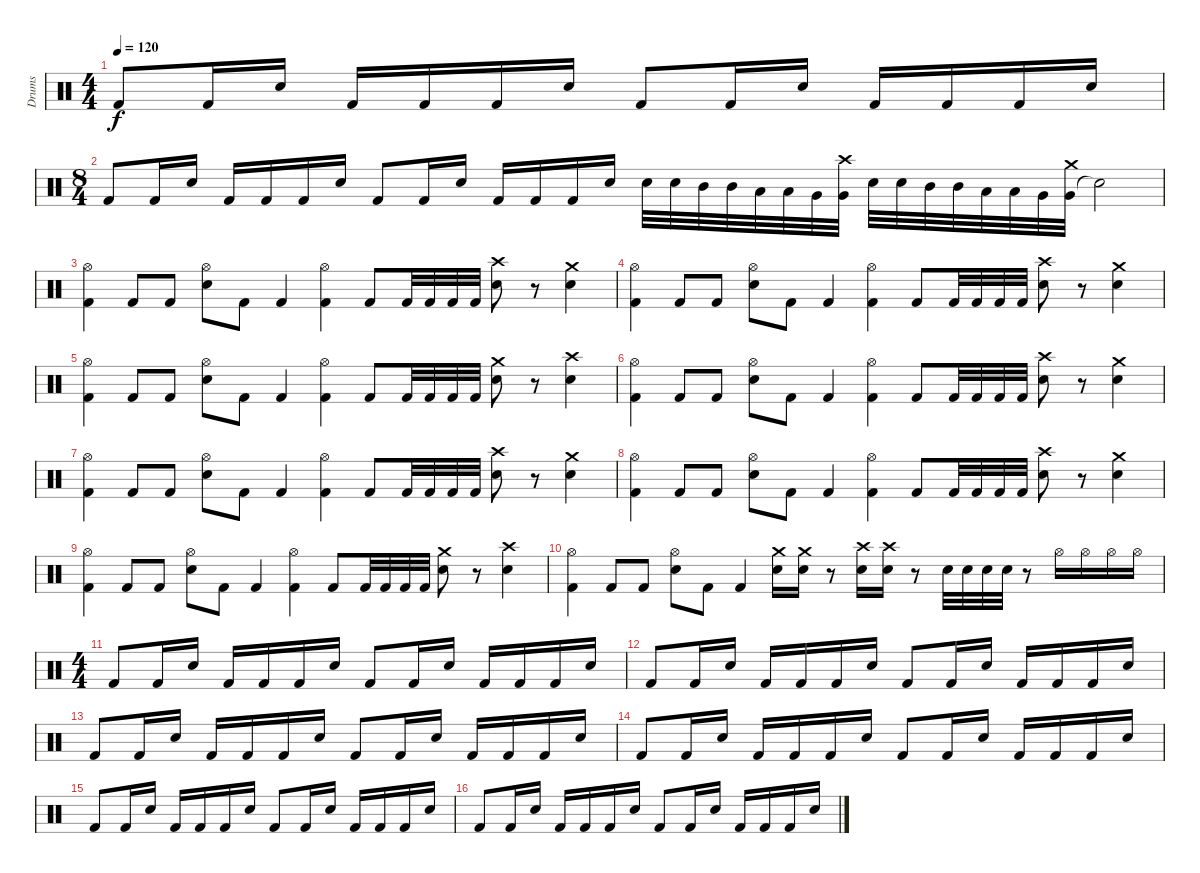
\track ("Drums" "Drums") {instrument percussion}
\staff {score}
\articulation defaults
\ts (4 4)
\tempo 120
\clef neutral
\ks c "Kick (hit) 2".8{dy f} "Kick (hit) 2".16 "Electric Snare (hit)".16 "Kick (hit) 2".16 "Kick (hit) 2".16 "Kick (hit) 2".16 "Electric Snare (hit)".16 "Kick (hit) 2".8 "Kick (hit) 2".16 "Electric Snare (hit)".16 "Kick (hit) 2".16 "Kick (hit) 2".16 "Kick (hit) 2".16 "Electric Snare (hit)".16
|
\ts (8 4)
"Kick (hit) 2".8 "Kick (hit) 2".16 "Electric Snare (hit)".16 "Kick (hit) 2".16 "Kick (hit) 2".16 "Kick (hit) 2".16 "Electric Snare (hit)".16 "Kick (hit) 2".8 "Kick (hit) 2".16 "Electric Snare (hit)".16 "Kick (hit) 2".16 "Kick (hit) 2".16 "Kick (hit) 2".16 "Electric Snare (hit)".16 "Snare (hit) 2".32 "Snare (hit) 2".32 "Mid Tom (hit)".32 "Mid Tom (hit)".32 "Low Tom (hit)".32 "Low Tom (hit)".32 "Very Low Tom (hit)".32 ("Very Low Tom (hit)" "Crash high (hit)").32 "Snare (hit) 2".32 "Snare (hit) 2".32 "Mid Tom (hit)".32 "Mid Tom (hit)".32 "Low Tom (hit)".32 "Low Tom (hit)".32 "Very Low Tom (hit)".32 ("Very Low Tom (hit)" "Crash medium (hit)").32 "Snare (hit)"{t}.2 |
("Kick (hit) 2" "Hi-Hat (open)").4 "Kick (hit) 2".8 "Kick (hit) 2".8 ("Electric Snare (hit)" "Hi-Hat (open)").8 "Kick (hit) 2".8 "Kick (hit) 2".4 ("Kick (hit) 2" "Hi-Hat (open)").4 "Kick (hit) 2".8 "Kick (hit) 2".32 "Kick (hit) 2".32 "Kick (hit) 2".32 "Kick (hit) 2".32 ("Electric Snare (hit)" "Crash high (hit)").8 r.8 ("Electric Snare (hit)" "Crash medium (hit)").4 |
("Kick (hit) 2" "Hi-Hat (open)").4 "Kick (hit) 2".8 "Kick (hit) 2".8 ("Electric Snare (hit)" "Hi-Hat (open)").8 "Kick (hit) 2".8 "Kick (hit) 2".4 ("Kick (hit) 2" "Hi-Hat (open)").4 "Kick (hit) 2".8 "Kick (hit) 2".32 "Kick (hit) 2".32 "Kick (hit) 2".32 "Kick (hit) 2".32 ("Electric Snare (hit)" "Crash high (hit)").8 r.8 ("Electric Snare (hit)" "Crash medium (hit)").4 |
("Kick (hit) 2" "Hi-Hat (open)").4 "Kick (hit) 2".8 "Kick (hit) 2".8 ("Electric Snare (hit)" "Hi-Hat (open)").8 "Kick (hit) 2".8 "Kick (hit) 2".4 ("Kick (hit) 2" "Hi-Hat (open)").4 "Kick (hit) 2".8 "Kick (hit) 2".32 "Kick (hit) 2".32 "Kick (hit) 2".32 "Kick (hit) 2".32 ("Electric Snare (hit)" "Crash medium (hit)").8 r.8 ("Electric Snare (hit)" "Crash high (hit)").4 |
("Kick (hit) 2" "Hi-Hat (open)").4 "Kick (hit) 2".8 "Kick (hit) 2".8 ("Electric Snare (hit)" "Hi-Hat (open)").8 "Kick (hit) 2".8 "Kick (hit) 2".4 ("Kick (hit) 2" "Hi-Hat (open)").4 "Kick (hit) 2".8 "Kick (hit) 2".32 "Kick (hit) 2".32 "Kick (hit) 2".32 "Kick (hit) 2".32 ("Electric Snare (hit)" "Crash high (hit)").8 r.8 ("Electric Snare (hit)" "Crash medium (hit)").4 |
("Kick (hit) 2" "Hi-Hat (open)").4 "Kick (hit) 2".8 "Kick (hit) 2".8 ("Electric Snare (hit)" "Hi-Hat (open)").8 "Kick (hit) 2".8 "Kick (hit) 2".4 ("Kick (hit) 2" "Hi-Hat (open)").4 "Kick (hit) 2".8 "Kick (hit) 2".32 "Kick (hit) 2".32 "Kick (hit) 2".32 "Kick (hit) 2".32 ("Electric Snare (hit)" "Crash high (hit)").8 r.8 ("Electric Snare (hit)" "Crash medium (hit)").4 |
("Kick (hit) 2" "Hi-Hat (open)").4 "Kick (hit) 2".8 "Kick (hit) 2".8 ("Electric Snare (hit)" "Hi-Hat (open)").8 "Kick (hit) 2".8 "Kick (hit) 2".4 ("Kick (hit) 2" "Hi-Hat (open)").4 "Kick (hit) 2".8 "Kick (hit) 2".32 "Kick (hit) 2".32 "Kick (hit) 2".32 "Kick (hit) 2".32 ("Electric Snare (hit)" "Crash high (hit)").8 r.8 ("Electric Snare (hit)" "Crash medium (hit)").4 |
("Kick (hit) 2" "Hi-Hat (open)").4 "Kick (hit) 2".8 "Kick (hit) 2".8 ("Electric Snare (hit)" "Hi-Hat (open)").8 "Kick (hit) 2".8 "Kick (hit) 2".4 ("Kick (hit) 2" "Hi-Hat (open)").4 "Kick (hit) 2".8 "Kick (hit) 2".32 "Kick (hit) 2".32 "Kick (hit) 2".32 "Kick (hit) 2".32 ("Electric Snare (hit)" "Crash medium (hit)").8 r.8 ("Electric Snare (hit)" "Crash high (hit)").4 |
("Kick (hit) 2" "Hi-Hat (open)").4 "Kick (hit) 2".8 "Kick (hit) 2".8 ("Electric Snare (hit)" "Hi-Hat (open)").8 "Kick (hit) 2".8 "Kick (hit) 2".4 ("Electric Snare (hit)" "Crash medium (hit)").16 ("Electric Snare (hit)" "Crash medium (hit)").16 r.8 ("Electric Snare (hit)" "Crash high (hit)").16 ("Electric Snare (hit)" "Crash high (hit)").16 r.8 "Electric Snare (hit)".32 "Electric Snare (hit)".32 "Electric Snare (hit)".32 "Electric Snare (hit)".32 r.8 "Hi-Hat (open)".16 "Hi-Hat (open)".16 "Hi-Hat (open)".16 "Hi-Hat (open)".16 |
\ts (4 4)
"Kick (hit) 2".8 "Kick (hit) 2".16 "Electric Snare (hit)".16 "Kick (hit) 2".16 "Kick (hit) 2".16 "Kick (hit) 2".16 "Electric Snare (hit)".16 "Kick (hit) 2".8 "Kick (hit) 2".16 "Electric Snare (hit)".16 "Kick (hit) 2".16 "Kick (hit) 2".16 "Kick (hit) 2".16 "Electric Snare (hit)".16 |
"Kick (hit) 2".8 "Kick (hit) 2".16 "Electric Snare (hit)".16 "Kick (hit) 2".16 "Kick (hit) 2".16 "Kick (hit) 2".16 "Electric Snare (hit)".16 "Kick (hit) 2".8 "Kick (hit) 2".16 "Electric Snare (hit)".16 "Kick (hit) 2".16 "Kick (hit) 2".16 "Kick (hit) 2".16 "Electric Snare (hit)".16 |
"Kick (hit) 2".8 "Kick (hit) 2".16 "Electric Snare (hit)".16 "Kick (hit) 2".16 "Kick (hit) 2".16 "Kick (hit) 2".16 "Electric Snare (hit)".16 "Kick (hit) 2".8 "Kick (hit) 2".16 "Electric Snare (hit)".16 "Kick (hit) 2".16 "Kick (hit) 2".16 "Kick (hit) 2".16 "Electric Snare (hit)".16 |
"Kick (hit) 2".8 "Kick (hit) 2".16 "Electric Snare (hit)".16 "Kick (hit) 2".16 "Kick (hit) 2".16 "Kick (hit) 2".16 "Electric Snare (hit)".16 "Kick (hit) 2".8 "Kick (hit) 2".16 "Electric Snare (hit)".16 "Kick (hit) 2".16 "Kick (hit) 2".16 "Kick (hit) 2".16 "Electric Snare (hit)".16 |
"Kick (hit) 2".8 "Kick (hit) 2".16 "Electric Snare (hit)".16 "Kick (hit) 2".16 "Kick (hit) 2".16 "Kick (hit) 2".16 "Electric Snare (hit)".16 "Kick (hit) 2".8 "Kick (hit) 2".16 "Electric Snare (hit)".16 "Kick (hit) 2".16 "Kick (hit) 2".16 "Kick (hit) 2".16 "Electric Snare (hit)".16 |
"Kick (hit) 2".8 "Kick (hit) 2".16 "Electric Snare (hit)".16 "Kick (hit) 2".16 "Kick (hit) 2".16 "Kick (hit) 2".16 "Electric Snare (hit)".16 "Kick (hit) 2".8 "Kick (hit) 2".16 "Electric Snare (hit)".16 "Kick (hit) 2".16 "Kick (hit) 2".16 "Kick (hit) 2".16 "Electric Snare (hit)".16
